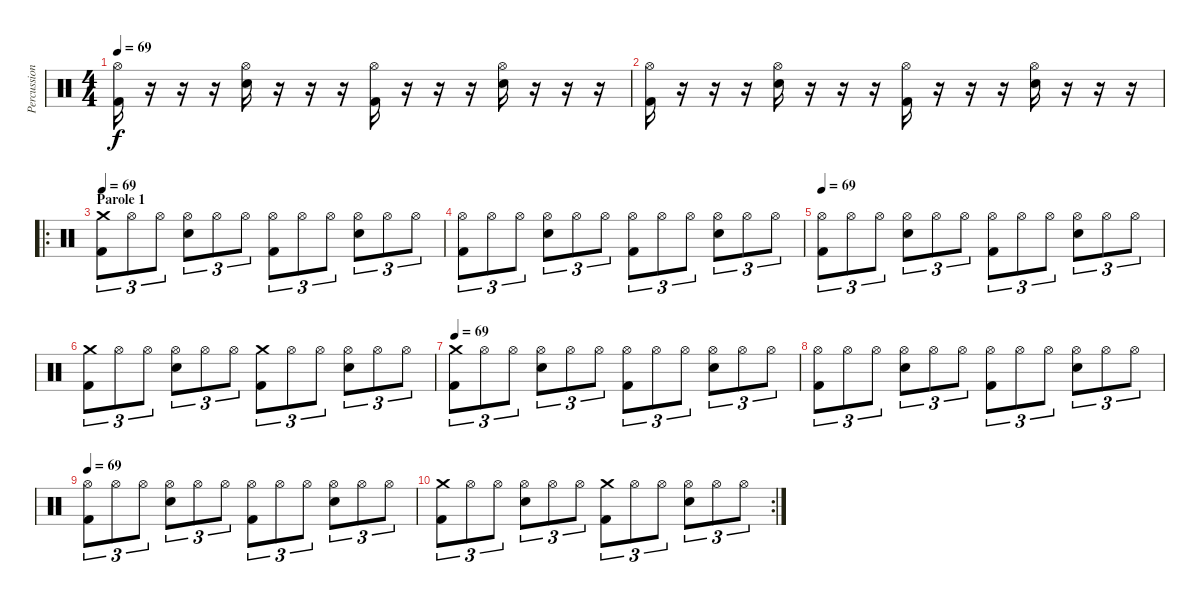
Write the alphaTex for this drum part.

\track ("Percussions" "Percussion") {instrument percussion}
\staff {score}
\articulation defaults
\ts (4 4)
\tempo 69
\clef neutral
\ks c
("Hi-Hat (open)" "Kick (hit) 2").16{dy f} r.16 r.16 r.16 ("Hi-Hat (open)" "Electric Snare (hit)").16 r.16 r.16 r.16 ("Hi-Hat (open)" "Kick (hit) 2").16 r.16 r.16 r.16 ("Hi-Hat (open)" "Electric Snare (hit)").16 r.16 r.16 r.16 |
("Hi-Hat (open)" "Kick (hit) 2").16 r.16 r.16 r.16 ("Hi-Hat (open)" "Electric Snare (hit)").16 r.16 r.16 r.16 ("Hi-Hat (open)" "Kick (hit) 2").16 r.16 r.16 r.16 ("Hi-Hat (open)" "Electric Snare (hit)").16 r.16 r.16 r.16 |
\ro
\section ("" "Parole 1")
\tempo 69
("Crash medium (hit)" "Kick (hit) 2").8{tu (3 2)} "Hi-Hat (open)".8{tu (3 2)} "Hi-Hat (open)".8{tu (3 2)} ("Hi-Hat (open)" "Electric Snare (hit)").8{tu (3 2)} "Hi-Hat (open)".8{tu (3 2)} "Hi-Hat (open)".8{tu (3 2)} ("Hi-Hat (open)" "Kick (hit) 2").8{tu (3 2)} "Hi-Hat (open)".8{tu (3 2)} "Hi-Hat (open)".8{tu (3 2)} ("Hi-Hat (open)" "Electric Snare (hit)").8{tu (3 2)} "Hi-Hat (open)".8{tu (3 2)} "Hi-Hat (open)".8{tu (3 2)} |
("Hi-Hat (open)" "Kick (hit) 2").8{tu (3 2)} "Hi-Hat (open)".8{tu (3 2)} "Hi-Hat (open)".8{tu (3 2)} ("Hi-Hat (open)" "Electric Snare (hit)").8{tu (3 2)} "Hi-Hat (open)".8{tu (3 2)} "Hi-Hat (open)".8{tu (3 2)} ("Hi-Hat (open)" "Kick (hit) 2").8{tu (3 2)} "Hi-Hat (open)".8{tu (3 2)} "Hi-Hat (open)".8{tu (3 2)} ("Hi-Hat (open)" "Electric Snare (hit)").8{tu (3 2)} "Hi-Hat (open)".8{tu (3 2)} "Hi-Hat (open)".8{tu (3 2)} |
\tempo 69
("Hi-Hat (open)" "Kick (hit) 2").8{tu (3 2)} "Hi-Hat (open)".8{tu (3 2)} "Hi-Hat (open)".8{tu (3 2)} ("Hi-Hat (open)" "Electric Snare (hit)").8{tu (3 2)} "Hi-Hat (open)".8{tu (3 2)} "Hi-Hat (open)".8{tu (3 2)} ("Hi-Hat (open)" "Kick (hit) 2").8{tu (3 2)} "Hi-Hat (open)".8{tu (3 2)} "Hi-Hat (open)".8{tu (3 2)} ("Hi-Hat (open)" "Electric Snare (hit)").8{tu (3 2)} "Hi-Hat (open)".8{tu (3 2)} "Hi-Hat (open)".8{tu (3 2)} |
("Crash medium (hit)" "Kick (hit) 2").8{tu (3 2)} "Hi-Hat (open)".8{tu (3 2)} "Hi-Hat (open)".8{tu (3 2)} ("Hi-Hat (open)" "Electric Snare (hit)").8{tu (3 2)} "Hi-Hat (open)".8{tu (3 2)} "Hi-Hat (open)".8{tu (3 2)} ("Crash medium (hit)" "Kick (hit) 2").8{tu (3 2)} "Hi-Hat (open)".8{tu (3 2)} "Hi-Hat (open)".8{tu (3 2)} ("Hi-Hat (open)" "Electric Snare (hit)").8{tu (3 2)} "Hi-Hat (open)".8{tu (3 2)} "Hi-Hat (open)".8{tu (3 2)} |
\tempo 69
("Crash medium (hit)" "Kick (hit) 2").8{tu (3 2)} "Hi-Hat (open)".8{tu (3 2)} "Hi-Hat (open)".8{tu (3 2)} ("Hi-Hat (open)" "Electric Snare (hit)").8{tu (3 2)} "Hi-Hat (open)".8{tu (3 2)} "Hi-Hat (open)".8{tu (3 2)} ("Hi-Hat (open)" "Kick (hit) 2").8{tu (3 2)} "Hi-Hat (open)".8{tu (3 2)} "Hi-Hat (open)".8{tu (3 2)} ("Hi-Hat (open)" "Electric Snare (hit)").8{tu (3 2)} "Hi-Hat (open)".8{tu (3 2)} "Hi-Hat (open)".8{tu (3 2)} |
("Hi-Hat (open)" "Kick (hit) 2").8{tu (3 2)} "Hi-Hat (open)".8{tu (3 2)} "Hi-Hat (open)".8{tu (3 2)} ("Hi-Hat (open)" "Electric Snare (hit)").8{tu (3 2)} "Hi-Hat (open)".8{tu (3 2)} "Hi-Hat (open)".8{tu (3 2)} ("Hi-Hat (open)" "Kick (hit) 2").8{tu (3 2)} "Hi-Hat (open)".8{tu (3 2)} "Hi-Hat (open)".8{tu (3 2)} ("Hi-Hat (open)" "Electric Snare (hit)").8{tu (3 2)} "Hi-Hat (open)".8{tu (3 2)} "Hi-Hat (open)".8{tu (3 2)} |
\tempo 69
("Hi-Hat (open)" "Kick (hit) 2").8{tu (3 2)} "Hi-Hat (open)".8{tu (3 2)} "Hi-Hat (open)".8{tu (3 2)} ("Hi-Hat (open)" "Electric Snare (hit)").8{tu (3 2)} "Hi-Hat (open)".8{tu (3 2)} "Hi-Hat (open)".8{tu (3 2)} ("Hi-Hat (open)" "Kick (hit) 2").8{tu (3 2)} "Hi-Hat (open)".8{tu (3 2)} "Hi-Hat (open)".8{tu (3 2)} ("Hi-Hat (open)" "Electric Snare (hit)").8{tu (3 2)} "Hi-Hat (open)".8{tu (3 2)} "Hi-Hat (open)".8{tu (3 2)} |
\rc 2
("Crash medium (hit)" "Kick (hit) 2").8{tu (3 2)} "Hi-Hat (open)".8{tu (3 2)} "Hi-Hat (open)".8{tu (3 2)} ("Hi-Hat (open)" "Electric Snare (hit)").8{tu (3 2)} "Hi-Hat (open)".8{tu (3 2)} "Hi-Hat (open)".8{tu (3 2)} ("Crash medium (hit)" "Kick (hit) 2").8{tu (3 2)} "Hi-Hat (open)".8{tu (3 2)} "Hi-Hat (open)".8{tu (3 2)} ("Hi-Hat (open)" "Electric Snare (hit)").8{tu (3 2)} "Hi-Hat (open)".8{tu (3 2)} "Hi-Hat (open)".8{tu (3 2)}
